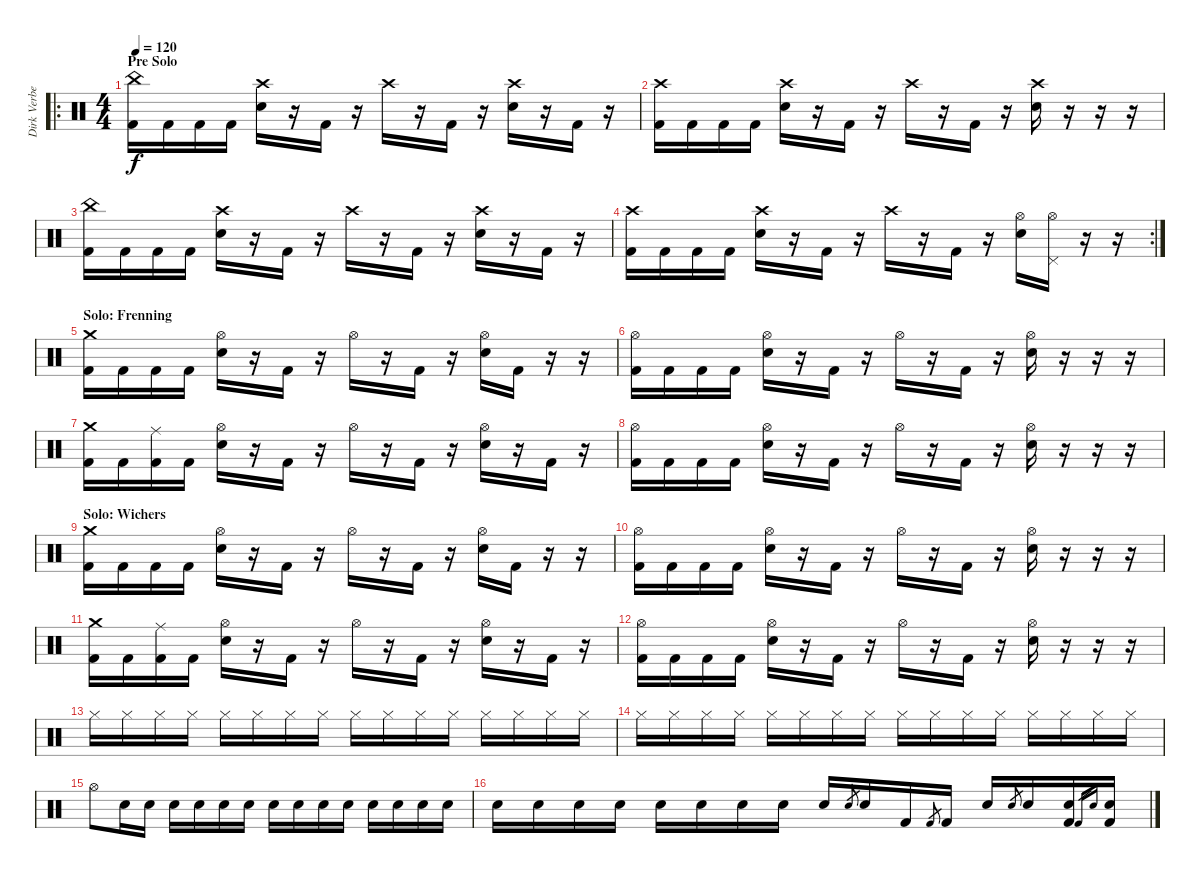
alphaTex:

\track ("Dirk Verbeuren" "Dirk Verbe") {instrument percussion}
\staff {score}
\articulation defaults
\ro
\ts (4 4)
\section ("" "Pre Solo")
\tempo 120
\clef neutral
\ks c
("Kick (hit) 2" "China (hit)").16{dy f} "Kick (hit) 2".16 "Kick (hit) 2".16 "Kick (hit) 2".16 ("Electric Snare (hit)" "Crash high (hit)").16 r.16 "Kick (hit) 2".16 r.16 "Crash high (hit)".16 r.16 "Kick (hit) 2".16 r.16 ("Electric Snare (hit)" "Crash high (hit)").16 r.16 "Kick (hit) 2".16 r.16 |
("Kick (hit) 2" "Crash high (hit)").16 "Kick (hit) 2".16 "Kick (hit) 2".16 "Kick (hit) 2".16 ("Electric Snare (hit)" "Crash high (hit)").16 r.16 "Kick (hit) 2".16 r.16 "Crash high (hit)".16 r.16 "Kick (hit) 2".16 r.16 ("Electric Snare (hit)" "Crash high (hit)").16 r.16 r.16 r.16 |
("Kick (hit) 2" "China (hit)").16 "Kick (hit) 2".16 "Kick (hit) 2".16 "Kick (hit) 2".16 ("Electric Snare (hit)" "Crash high (hit)").16 r.16 "Kick (hit) 2".16 r.16 "Crash high (hit)".16 r.16 "Kick (hit) 2".16 r.16 ("Electric Snare (hit)" "Crash high (hit)").16 r.16 "Kick (hit) 2".16 r.16 |
\rc 2
("Kick (hit) 2" "Crash high (hit)").16 "Kick (hit) 2".16 "Kick (hit) 2".16 "Kick (hit) 2".16 ("Electric Snare (hit)" "Crash high (hit)").16 r.16 "Kick (hit) 2".16 r.16 "Crash high (hit)".16 r.16 "Kick (hit) 2".16 r.16 ("Electric Snare (hit)" "Hi-Hat (open)").16 ("Hi-Hat (open)" "Pedal Hi-Hat (hit)").16 r.16 r.16 |
\section ("" "Solo: Frenning")
("Kick (hit) 2" "Crash medium (hit)").16 "Kick (hit) 2".16 "Kick (hit) 2".16 "Kick (hit) 2".16 ("Electric Snare (hit)" "Hi-Hat (open)").16 r.16 "Kick (hit) 2".16 r.16 "Hi-Hat (open)".16 r.16 "Kick (hit) 2".16 r.16 ("Electric Snare (hit)" "Hi-Hat (open)").16 "Kick (hit) 2".16 r.16 r.16 |
("Kick (hit) 2" "Hi-Hat (open)").16 "Kick (hit) 2".16 "Kick (hit) 2".16 "Kick (hit) 2".16 ("Electric Snare (hit)" "Hi-Hat (open)").16 r.16 "Kick (hit) 2".16 r.16 "Hi-Hat (open)".16 r.16 "Kick (hit) 2".16 r.16 ("Electric Snare (hit)" "Hi-Hat (open)").16 r.16 r.16 r.16 |
("Kick (hit) 2" "Crash medium (hit)").16 "Kick (hit) 2".16 ("Kick (hit) 2" "Ride (middle)").16 "Kick (hit) 2".16 ("Electric Snare (hit)" "Hi-Hat (open)").16 r.16 "Kick (hit) 2".16 r.16 "Hi-Hat (open)".16 r.16 "Kick (hit) 2".16 r.16 ("Electric Snare (hit)" "Hi-Hat (open)").16 r.16 "Kick (hit) 2".16 r.16 |
("Kick (hit) 2" "Hi-Hat (open)").16 "Kick (hit) 2".16 "Kick (hit) 2".16 "Kick (hit) 2".16 ("Electric Snare (hit)" "Hi-Hat (open)").16 r.16 "Kick (hit) 2".16 r.16 "Hi-Hat (open)".16 r.16 "Kick (hit) 2".16 r.16 ("Electric Snare (hit)" "Hi-Hat (open)").16 r.16 r.16 r.16 |
\section ("" "Solo: Wichers")
("Kick (hit) 2" "Crash medium (hit)").16 "Kick (hit) 2".16 "Kick (hit) 2".16 "Kick (hit) 2".16 ("Electric Snare (hit)" "Hi-Hat (open)").16 r.16 "Kick (hit) 2".16 r.16 "Hi-Hat (open)".16 r.16 "Kick (hit) 2".16 r.16 ("Electric Snare (hit)" "Hi-Hat (open)").16 "Kick (hit) 2".16 r.16 r.16 |
("Kick (hit) 2" "Hi-Hat (open)").16 "Kick (hit) 2".16 "Kick (hit) 2".16 "Kick (hit) 2".16 ("Electric Snare (hit)" "Hi-Hat (open)").16 r.16 "Kick (hit) 2".16 r.16 "Hi-Hat (open)".16 r.16 "Kick (hit) 2".16 r.16 ("Electric Snare (hit)" "Hi-Hat (open)").16 r.16 r.16 r.16 |
("Kick (hit) 2" "Crash medium (hit)").16 "Kick (hit) 2".16 ("Kick (hit) 2" "Ride (middle)").16 "Kick (hit) 2".16 ("Electric Snare (hit)" "Hi-Hat (open)").16 r.16 "Kick (hit) 2".16 r.16 "Hi-Hat (open)".16 r.16 "Kick (hit) 2".16 r.16 ("Electric Snare (hit)" "Hi-Hat (open)").16 r.16 "Kick (hit) 2".16 r.16 |
("Kick (hit) 2" "Hi-Hat (open)").16 "Kick (hit) 2".16 "Kick (hit) 2".16 "Kick (hit) 2".16 ("Electric Snare (hit)" "Hi-Hat (open)").16 r.16 "Kick (hit) 2".16 r.16 "Hi-Hat (open)".16 r.16 "Kick (hit) 2".16 r.16 ("Electric Snare (hit)" "Hi-Hat (open)").16 r.16 r.16 r.16 |
"Hi-Hat (closed)".16 "Hi-Hat (closed)".16 "Hi-Hat (closed)".16 "Hi-Hat (closed)".16 "Hi-Hat (closed)".16 "Hi-Hat (closed)".16 "Hi-Hat (closed)".16 "Hi-Hat (closed)".16 "Hi-Hat (closed)".16 "Hi-Hat (closed)".16 "Hi-Hat (closed)".16 "Hi-Hat (closed)".16 "Hi-Hat (closed)".16 "Hi-Hat (closed)".16 "Hi-Hat (closed)".16 "Hi-Hat (closed)".16 |
"Hi-Hat (closed)".16 "Hi-Hat (closed)".16 "Hi-Hat (closed)".16 "Hi-Hat (closed)".16 "Hi-Hat (closed)".16 "Hi-Hat (closed)".16 "Hi-Hat (closed)".16 "Hi-Hat (closed)".16 "Hi-Hat (closed)".16 "Hi-Hat (closed)".16 "Hi-Hat (closed)".16 "Hi-Hat (closed)".16 "Hi-Hat (closed)".16 "Hi-Hat (closed)".16 "Hi-Hat (closed)".16 "Hi-Hat (closed)".16 |
"Hi-Hat (open)".8 "Electric Snare (hit)".16 "Electric Snare (hit)".16 "Electric Snare (hit)".16 "Electric Snare (hit)".16 "Electric Snare (hit)".16 "Electric Snare (hit)".16 "Electric Snare (hit)".16 "Electric Snare (hit)".16 "Electric Snare (hit)".16 "Electric Snare (hit)".16 "Electric Snare (hit)".16 "Electric Snare (hit)".16 "Electric Snare (hit)".16 "Electric Snare (hit)".16 |
"Electric Snare (hit)".16 "Electric Snare (hit)".16 "Electric Snare (hit)".16 "Electric Snare (hit)".16 "Electric Snare (hit)".16 "Electric Snare (hit)".16 "Electric Snare (hit)".16 "Electric Snare (hit)".16 "Electric Snare (hit)".16 "Electric Snare (hit)".8{gr} "Electric Snare (hit)".16 "Kick (hit) 2".16 "Kick (hit) 2".8{gr} "Kick (hit) 2".16 "Electric Snare (hit)".16 "Electric Snare (hit)".8{gr} "Electric Snare (hit)".16 ("Kick (hit) 2" "Electric Snare (hit)").16 "Kick (hit) 2".16{gr} "Electric Snare (hit)".16{gr} ("Kick (hit) 2" "Electric Snare (hit)").16
